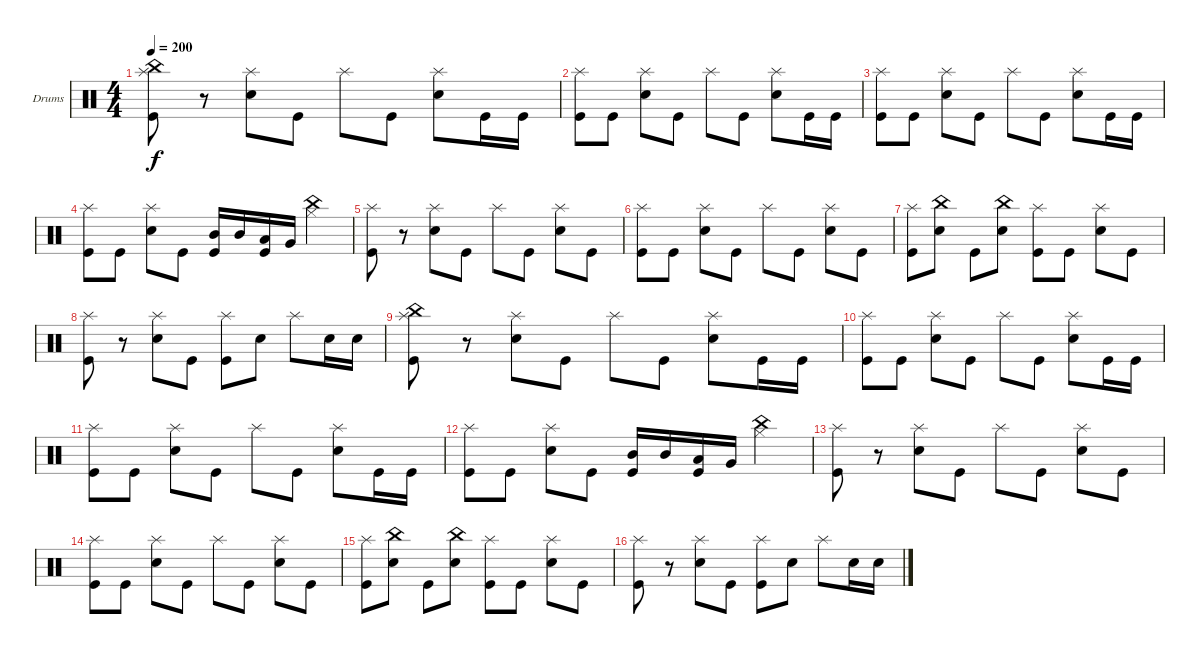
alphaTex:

\defaultSystemsLayout 4
\bracketExtendMode groupsimilarinstruments
\firstSystemTrackNameOrientation horizontal
\otherSystemsTrackNameOrientation horizontal
\track ("Drumkit" "Drums") {instrument percussion}
\staff {score}
\articulation defaults
\ts (4 4)
\tempo 200
\clef neutral
\ks c
("Splash (hit)" "Kick (hit)" "China (hit)").8{dy f} r.8 ("Splash (hit)" "Snare (hit) 2").8 "Kick (hit)".8 "Splash (hit)".8 "Kick (hit)".8 ("Splash (hit)" "Snare (hit) 2").8 "Kick (hit)".16 "Kick (hit)".16 |
("Splash (hit)" "Kick (hit)").8 "Kick (hit)".8 ("Splash (hit)" "Snare (hit) 2").8 "Kick (hit)".8 "Splash (hit)".8 "Kick (hit)".8 ("Splash (hit)" "Snare (hit) 2").8 "Kick (hit)".16 "Kick (hit)".16 |
("Splash (hit)" "Kick (hit)").8 "Kick (hit)".8 ("Splash (hit)" "Snare (hit) 2").8 "Kick (hit)".8 "Splash (hit)".8 "Kick (hit)".8 ("Splash (hit)" "Snare (hit) 2").8 "Kick (hit)".16 "Kick (hit)".16 |
("Splash (hit)" "Kick (hit)").8 "Kick (hit)".8 ("Splash (hit)" "Snare (hit) 2").8 "Kick (hit)".8 ("Mid Tom (hit)" "Kick (hit)").16 "Mid Tom (hit)".16 ("Low Tom (hit)" "Kick (hit)").16 "Very Low Tom (hit)".16 ("China (hit)" "Hi-Hat (closed)").4 |
("Splash (hit)" "Kick (hit)").8 r.8 ("Splash (hit)" "Snare (hit) 2").8 "Kick (hit)".8 "Splash (hit)".8 "Kick (hit)".8 ("Splash (hit)" "Snare (hit) 2").8 "Kick (hit)".8 |
("Splash (hit)" "Kick (hit)").8 "Kick (hit)".8 ("Splash (hit)" "Snare (hit) 2").8 "Kick (hit)".8 "Splash (hit)".8 "Kick (hit)".8 ("Splash (hit)" "Snare (hit) 2").8 "Kick (hit)".8 |
("Kick (hit)" "Splash (hit)").8 ("Snare (hit) 2" "China (hit)").8 "Kick (hit)".8 ("Snare (hit) 2" "China (hit)").8 ("Kick (hit)" "Splash (hit)").8 "Kick (hit)".8 ("Snare (hit) 2" "Splash (hit)").8 "Kick (hit)".8 |
("Splash (hit)" "Kick (hit)").8 r.8 ("Splash (hit)" "Snare (hit) 2").8 "Kick (hit)".8 ("Splash (hit)" "Kick (hit)").8 "Snare (hit) 2".8 "Splash (hit)".8 "Snare (hit) 2".16 "Snare (hit) 2".16 |
("Splash (hit)" "Kick (hit)" "China (hit)").8 r.8 ("Splash (hit)" "Snare (hit) 2").8 "Kick (hit)".8 "Splash (hit)".8 "Kick (hit)".8 ("Splash (hit)" "Snare (hit) 2").8 "Kick (hit)".16 "Kick (hit)".16 |
("Splash (hit)" "Kick (hit)").8 "Kick (hit)".8 ("Splash (hit)" "Snare (hit) 2").8 "Kick (hit)".8 "Splash (hit)".8 "Kick (hit)".8 ("Splash (hit)" "Snare (hit) 2").8 "Kick (hit)".16 "Kick (hit)".16 |
("Splash (hit)" "Kick (hit)").8 "Kick (hit)".8 ("Splash (hit)" "Snare (hit) 2").8 "Kick (hit)".8 "Splash (hit)".8 "Kick (hit)".8 ("Splash (hit)" "Snare (hit) 2").8 "Kick (hit)".16 "Kick (hit)".16 |
("Splash (hit)" "Kick (hit)").8 "Kick (hit)".8 ("Splash (hit)" "Snare (hit) 2").8 "Kick (hit)".8 ("Mid Tom (hit)" "Kick (hit)").16 "Mid Tom (hit)".16 ("Low Tom (hit)" "Kick (hit)").16 "Very Low Tom (hit)".16 ("China (hit)" "Hi-Hat (closed)").4 |
("Splash (hit)" "Kick (hit)").8 r.8 ("Splash (hit)" "Snare (hit) 2").8 "Kick (hit)".8 "Splash (hit)".8 "Kick (hit)".8 ("Splash (hit)" "Snare (hit) 2").8 "Kick (hit)".8 |
("Splash (hit)" "Kick (hit)").8 "Kick (hit)".8 ("Splash (hit)" "Snare (hit) 2").8 "Kick (hit)".8 "Splash (hit)".8 "Kick (hit)".8 ("Splash (hit)" "Snare (hit) 2").8 "Kick (hit)".8 |
("Kick (hit)" "Splash (hit)").8 ("Snare (hit) 2" "China (hit)").8 "Kick (hit)".8 ("Snare (hit) 2" "China (hit)").8 ("Kick (hit)" "Splash (hit)").8 "Kick (hit)".8 ("Snare (hit) 2" "Splash (hit)").8 "Kick (hit)".8 |
("Splash (hit)" "Kick (hit)").8 r.8 ("Splash (hit)" "Snare (hit) 2").8 "Kick (hit)".8 ("Splash (hit)" "Kick (hit)").8 "Snare (hit) 2".8 "Splash (hit)".8 "Snare (hit) 2".16 "Snare (hit) 2".16
